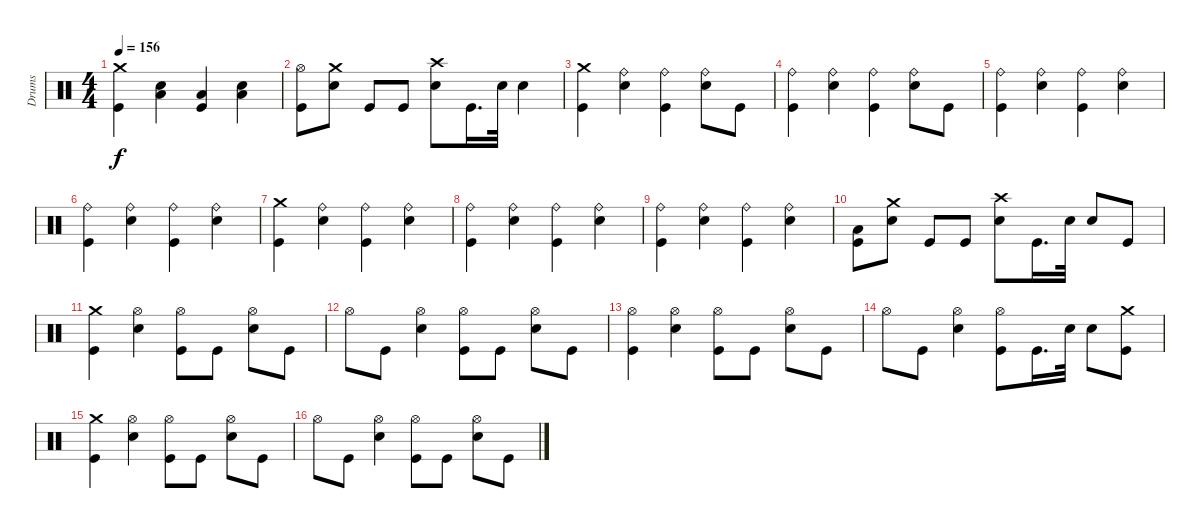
\track ("Drums" "Drums") {instrument percussion}
\staff {score}
\articulation defaults
\ts (4 4)
\tempo 156
\clef neutral
\ks c
("Crash medium (hit)" "Kick (hit)").4{dy f} ("Low Tom (hit)" "Electric Snare (hit)").4 ("Kick (hit)" "Low Floor Tom (hit)").4 ("Electric Snare (hit)" "Low Tom (hit)").4 |
("Kick (hit)" "Hi-Hat (open)").8 ("Electric Snare (hit)" "Crash medium (hit)").8 "Kick (hit)".8 "Kick (hit)".8 ("Crash high (hit)" "Electric Snare (hit)").8 "Kick (hit)".16{d} "Electric Snare (hit)".32 "Electric Snare (hit)".4 |
("Crash medium (hit)" "Kick (hit)").4 ("Ride (bell)" "Electric Snare (hit)").4 ("Ride (bell)" "Kick (hit)").4 ("Ride (bell)" "Electric Snare (hit)").8 "Kick (hit)".8 |
("Ride (bell)" "Kick (hit)").4 ("Ride (bell)" "Electric Snare (hit)").4 ("Ride (bell)" "Kick (hit)").4 ("Ride (bell)" "Electric Snare (hit)").8 "Kick (hit)".8 |
("Ride (bell)" "Kick (hit)").4 ("Ride (bell)" "Electric Snare (hit)").4 ("Ride (bell)" "Kick (hit)").4 ("Ride (bell)" "Electric Snare (hit)").4 |
("Ride (bell)" "Kick (hit)").4 ("Ride (bell)" "Electric Snare (hit)").4 ("Ride (bell)" "Kick (hit)").4 ("Ride (bell)" "Electric Snare (hit)").4 |
("Crash medium (hit)" "Kick (hit)").4 ("Ride (bell)" "Electric Snare (hit)").4 ("Ride (bell)" "Kick (hit)").4 ("Ride (bell)" "Electric Snare (hit)").4 |
("Ride (bell)" "Kick (hit)").4 ("Ride (bell)" "Electric Snare (hit)").4 ("Ride (bell)" "Kick (hit)").4 ("Ride (bell)" "Electric Snare (hit)").4 |
("Ride (bell)" "Kick (hit)").4 ("Ride (bell)" "Electric Snare (hit)").4 ("Ride (bell)" "Kick (hit)").4 ("Ride (bell)" "Electric Snare (hit)").4 |
("Low Floor Tom (hit)" "Kick (hit)").8 ("Crash medium (hit)" "Electric Snare (hit)").8 "Kick (hit)".8 "Kick (hit)".8 ("Electric Snare (hit)" "Crash high (hit)").8 "Kick (hit)".16{d} "Electric Snare (hit)".32 "Electric Snare (hit)".8 "Kick (hit)".8 |
("Kick (hit)" "Crash medium (hit)").4 ("Electric Snare (hit)" "Hi-Hat (open)").4 ("Kick (hit)" "Hi-Hat (open)").8 "Kick (hit)".8 ("Electric Snare (hit)" "Hi-Hat (open)").8 "Kick (hit)".8 |
"Hi-Hat (open)".8 "Kick (hit)".8 ("Electric Snare (hit)" "Hi-Hat (open)").4 ("Kick (hit)" "Hi-Hat (open)").8 "Kick (hit)".8 ("Electric Snare (hit)" "Hi-Hat (open)").8 "Kick (hit)".8 |
("Hi-Hat (open)" "Kick (hit)").4 ("Hi-Hat (open)" "Electric Snare (hit)").4 ("Hi-Hat (open)" "Kick (hit)").8 "Kick (hit)".8 ("Hi-Hat (open)" "Electric Snare (hit)").8 "Kick (hit)".8 |
"Hi-Hat (open)".8 "Kick (hit)".8 ("Electric Snare (hit)" "Hi-Hat (open)").4 ("Kick (hit)" "Hi-Hat (open)").8 "Kick (hit)".16{d} "Electric Snare (hit)".32 "Electric Snare (hit)".8 ("Kick (hit)" "Crash medium (hit)").8 |
("Kick (hit)" "Crash medium (hit)").4 ("Electric Snare (hit)" "Hi-Hat (open)").4 ("Kick (hit)" "Hi-Hat (open)").8 "Kick (hit)".8 ("Electric Snare (hit)" "Hi-Hat (open)").8 "Kick (hit)".8 |
"Hi-Hat (open)".8 "Kick (hit)".8 ("Electric Snare (hit)" "Hi-Hat (open)").4 ("Kick (hit)" "Hi-Hat (open)").8 "Kick (hit)".8 ("Electric Snare (hit)" "Hi-Hat (open)").8 "Kick (hit)".8
